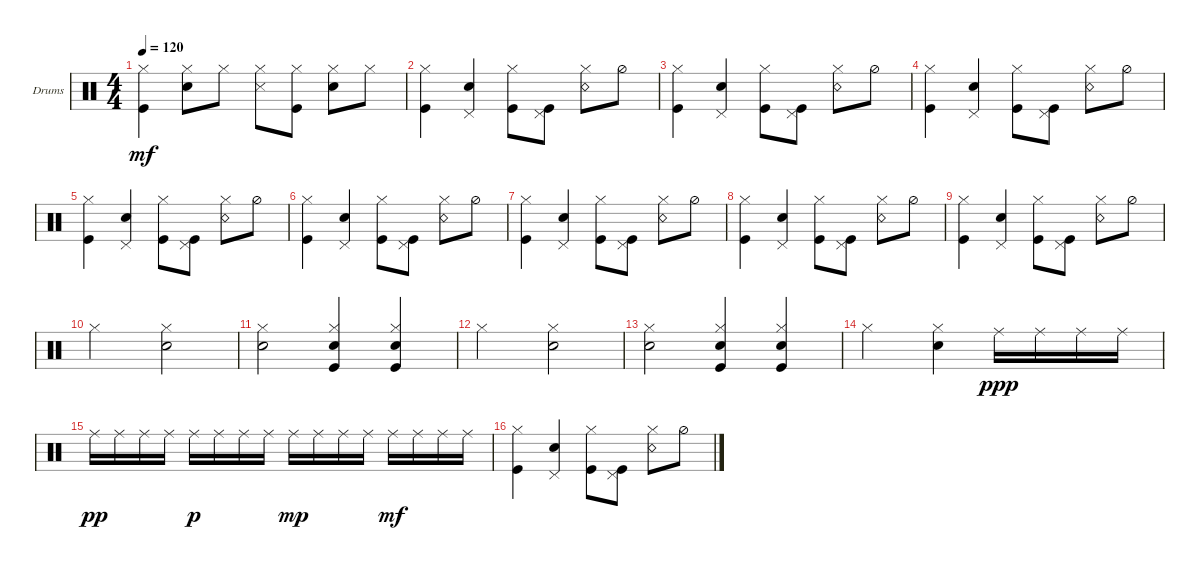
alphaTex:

\defaultSystemsLayout 4
\bracketExtendMode groupsimilarinstruments
\firstSystemTrackNameOrientation horizontal
\otherSystemsTrackNameOrientation horizontal
\track ("Drumkit" "Drums") {instrument percussion}
\staff {score}
\articulation defaults
\ts (4 4)
\tempo 120
\clef neutral
\ks c
("Kick (hit)" "Hi-Hat (closed)").4{dy mf} ("Snare (hit) 2" "Hi-Hat (closed)").8 "Hi-Hat (closed)".8 ("Snare (side stick) 3" "Hi-Hat (closed)").8 ("Hi-Hat (closed)" "Kick (hit)").8 ("Hi-Hat (closed)" "Snare (hit) 2").8 "Hi-Hat (closed)".8 |
("Kick (hit)" "Hi-Hat (closed)").4 ("Snare (hit) 2" "Pedal Hi-Hat (hit)").4 ("Kick (hit)" "Hi-Hat (closed)").8 ("Pedal Hi-Hat (hit)" "Kick (hit)").8 ("Hi-Hat (closed)" "Snare (rim shot)").8 "Hi-Hat (half)".8 |
("Kick (hit)" "Hi-Hat (closed)").4 ("Snare (hit) 2" "Pedal Hi-Hat (hit)").4 ("Kick (hit)" "Hi-Hat (closed)").8 ("Pedal Hi-Hat (hit)" "Kick (hit)").8 ("Hi-Hat (closed)" "Snare (rim shot)").8 "Hi-Hat (half)".8 |
("Kick (hit)" "Hi-Hat (closed)").4 ("Snare (hit) 2" "Pedal Hi-Hat (hit)").4 ("Kick (hit)" "Hi-Hat (closed)").8 ("Pedal Hi-Hat (hit)" "Kick (hit)").8 ("Hi-Hat (closed)" "Snare (rim shot)").8 "Hi-Hat (half)".8 |
("Kick (hit)" "Hi-Hat (closed)").4 ("Snare (hit) 2" "Pedal Hi-Hat (hit)").4 ("Kick (hit)" "Hi-Hat (closed)").8 ("Pedal Hi-Hat (hit)" "Kick (hit)").8 ("Hi-Hat (closed)" "Snare (rim shot)").8 "Hi-Hat (half)".8 |
("Kick (hit)" "Hi-Hat (closed)").4 ("Snare (hit) 2" "Pedal Hi-Hat (hit)").4 ("Kick (hit)" "Hi-Hat (closed)").8 ("Pedal Hi-Hat (hit)" "Kick (hit)").8 ("Hi-Hat (closed)" "Snare (rim shot)").8 "Hi-Hat (half)".8 |
("Kick (hit)" "Hi-Hat (closed)").4 ("Snare (hit) 2" "Pedal Hi-Hat (hit)").4 ("Kick (hit)" "Hi-Hat (closed)").8 ("Pedal Hi-Hat (hit)" "Kick (hit)").8 ("Hi-Hat (closed)" "Snare (rim shot)").8 "Hi-Hat (half)".8 |
("Kick (hit)" "Hi-Hat (closed)").4 ("Snare (hit) 2" "Pedal Hi-Hat (hit)").4 ("Kick (hit)" "Hi-Hat (closed)").8 ("Pedal Hi-Hat (hit)" "Kick (hit)").8 ("Hi-Hat (closed)" "Snare (rim shot)").8 "Hi-Hat (half)".8 |
("Kick (hit)" "Hi-Hat (closed)").4 ("Snare (hit) 2" "Pedal Hi-Hat (hit)").4 ("Kick (hit)" "Hi-Hat (closed)").8 ("Pedal Hi-Hat (hit)" "Kick (hit)").8 ("Hi-Hat (closed)" "Snare (rim shot)").8 "Hi-Hat (half)".8 |
"Hi-Hat (closed)".2 ("Hi-Hat (closed)" "Snare (hit) 2").2 |
("Hi-Hat (closed)" "Snare (hit) 2").2 ("Hi-Hat (closed)" "Snare (hit) 2" "Kick (hit)").4 ("Kick (hit)" "Snare (hit) 2" "Hi-Hat (closed)").4 |
"Hi-Hat (closed)".2 ("Hi-Hat (closed)" "Snare (hit) 2").2 |
("Hi-Hat (closed)" "Snare (hit) 2").2 ("Hi-Hat (closed)" "Snare (hit) 2" "Kick (hit)").4 ("Kick (hit)" "Snare (hit) 2" "Hi-Hat (closed)").4 |
"Hi-Hat (closed)".2 ("Hi-Hat (closed)" "Snare (hit) 2").4 "Ride (middle)".16{dy ppp} "Ride (middle)".16 "Ride (middle)".16 "Ride (middle)".16 |
"Ride (middle)".16{dy pp} "Ride (middle)".16 "Ride (middle)".16 "Ride (middle)".16 "Ride (middle)".16{dy p} "Ride (middle)".16 "Ride (middle)".16 "Ride (middle)".16 "Ride (middle)".16{dy mp} "Ride (middle)".16 "Ride (middle)".16 "Ride (middle)".16 "Ride (middle)".16{dy mf} "Ride (middle)".16 "Ride (middle)".16 "Ride (middle)".16 |
("Kick (hit)" "Hi-Hat (closed)").4 ("Snare (hit) 2" "Pedal Hi-Hat (hit)").4 ("Kick (hit)" "Hi-Hat (closed)").8 ("Pedal Hi-Hat (hit)" "Kick (hit)").8 ("Hi-Hat (closed)" "Snare (rim shot)").8 "Hi-Hat (half)".8
